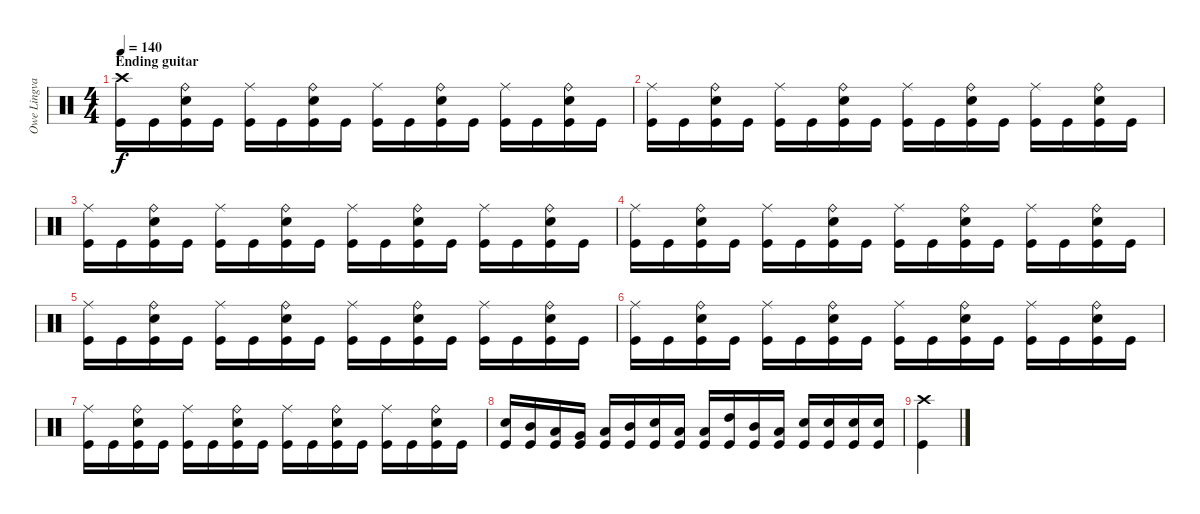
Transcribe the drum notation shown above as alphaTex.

\track ("Owe Lingvall" "Owe Lingva") {instrument percussion}
\staff {score}
\articulation defaults
\ts (4 4)
\section ("" "Ending guitar")
\tempo 140
\clef neutral
\ks c
("Kick (hit)" "Crash high (hit)").16{dy f} "Kick (hit)".16 ("Kick (hit)" "Ride (bell)" "Snare (hit) 2").16 "Kick (hit)".16 ("Kick (hit)" "Ride (middle)").16 "Kick (hit)".16 ("Kick (hit)" "Ride (bell)" "Snare (hit) 2").16 "Kick (hit)".16 ("Kick (hit)" "Ride (middle)").16 "Kick (hit)".16 ("Kick (hit)" "Ride (bell)" "Snare (hit) 2").16 "Kick (hit)".16 ("Kick (hit)" "Ride (middle)").16 "Kick (hit)".16 ("Kick (hit)" "Ride (bell)" "Snare (hit) 2").16 "Kick (hit)".16 |
("Kick (hit)" "Ride (middle)").16 "Kick (hit)".16 ("Kick (hit)" "Ride (bell)" "Snare (hit) 2").16 "Kick (hit)".16 ("Kick (hit)" "Ride (middle)").16 "Kick (hit)".16 ("Kick (hit)" "Ride (bell)" "Snare (hit) 2").16 "Kick (hit)".16 ("Kick (hit)" "Ride (middle)").16 "Kick (hit)".16 ("Kick (hit)" "Ride (bell)" "Snare (hit) 2").16 "Kick (hit)".16 ("Kick (hit)" "Ride (middle)").16 "Kick (hit)".16 ("Kick (hit)" "Ride (bell)" "Snare (hit) 2").16 "Kick (hit)".16 |
("Kick (hit)" "Ride (middle)").16 "Kick (hit)".16 ("Kick (hit)" "Ride (bell)" "Snare (hit) 2").16 "Kick (hit)".16 ("Kick (hit)" "Ride (middle)").16 "Kick (hit)".16 ("Kick (hit)" "Ride (bell)" "Snare (hit) 2").16 "Kick (hit)".16 ("Kick (hit)" "Ride (middle)").16 "Kick (hit)".16 ("Kick (hit)" "Ride (bell)" "Snare (hit) 2").16 "Kick (hit)".16 ("Kick (hit)" "Ride (middle)").16 "Kick (hit)".16 ("Kick (hit)" "Ride (bell)" "Snare (hit) 2").16 "Kick (hit)".16 |
("Kick (hit)" "Ride (middle)").16 "Kick (hit)".16 ("Kick (hit)" "Ride (bell)" "Snare (hit) 2").16 "Kick (hit)".16 ("Kick (hit)" "Ride (middle)").16 "Kick (hit)".16 ("Kick (hit)" "Ride (bell)" "Snare (hit) 2").16 "Kick (hit)".16 ("Kick (hit)" "Ride (middle)").16 "Kick (hit)".16 ("Kick (hit)" "Ride (bell)" "Snare (hit) 2").16 "Kick (hit)".16 ("Kick (hit)" "Ride (middle)").16 "Kick (hit)".16 ("Kick (hit)" "Ride (bell)" "Snare (hit) 2").16 "Kick (hit)".16 |
("Kick (hit)" "Ride (middle)").16 "Kick (hit)".16 ("Kick (hit)" "Ride (bell)" "Snare (hit) 2").16 "Kick (hit)".16 ("Kick (hit)" "Ride (middle)").16 "Kick (hit)".16 ("Kick (hit)" "Ride (bell)" "Snare (hit) 2").16 "Kick (hit)".16 ("Kick (hit)" "Ride (middle)").16 "Kick (hit)".16 ("Kick (hit)" "Ride (bell)" "Snare (hit) 2").16 "Kick (hit)".16 ("Kick (hit)" "Ride (middle)").16 "Kick (hit)".16 ("Kick (hit)" "Ride (bell)" "Snare (hit) 2").16 "Kick (hit)".16 |
("Kick (hit)" "Ride (middle)").16 "Kick (hit)".16 ("Kick (hit)" "Ride (bell)" "Snare (hit) 2").16 "Kick (hit)".16 ("Kick (hit)" "Ride (middle)").16 "Kick (hit)".16 ("Kick (hit)" "Ride (bell)" "Snare (hit) 2").16 "Kick (hit)".16 ("Kick (hit)" "Ride (middle)").16 "Kick (hit)".16 ("Kick (hit)" "Ride (bell)" "Snare (hit) 2").16 "Kick (hit)".16 ("Kick (hit)" "Ride (middle)").16 "Kick (hit)".16 ("Kick (hit)" "Ride (bell)" "Snare (hit) 2").16 "Kick (hit)".16 |
("Kick (hit)" "Ride (middle)").16 "Kick (hit)".16 ("Kick (hit)" "Ride (bell)" "Snare (hit) 2").16 "Kick (hit)".16 ("Kick (hit)" "Ride (middle)").16 "Kick (hit)".16 ("Kick (hit)" "Ride (bell)" "Snare (hit) 2").16 "Kick (hit)".16 ("Kick (hit)" "Ride (middle)").16 "Kick (hit)".16 ("Kick (hit)" "Ride (bell)" "Snare (hit) 2").16 "Kick (hit)".16 ("Kick (hit)" "Ride (middle)").16 "Kick (hit)".16 ("Kick (hit)" "Ride (bell)" "Snare (hit) 2").16 "Kick (hit)".16 |
("Kick (hit)" "Snare (hit) 2").16 ("Kick (hit)" "Mid Tom (hit)").16 ("Kick (hit)" "Low Tom (hit)").16 ("Kick (hit)" "Very Low Tom (hit)").16 ("Kick (hit)" "Low Tom (hit)").16 ("Kick (hit)" "Mid Tom (hit)").16 ("Kick (hit)" "Snare (hit) 2").16 ("Kick (hit)" "Low Tom (hit)").16 ("Kick (hit)" "Low Tom (hit)").16 ("Kick (hit)" "High Tom (hit)").16 ("Kick (hit)" "Mid Tom (hit)").16 ("Kick (hit)" "Low Tom (hit)").16 ("Kick (hit)" "Snare (hit) 2").16 ("Kick (hit)" "Snare (hit) 2").16 ("Kick (hit)" "Snare (hit) 2").16 ("Kick (hit)" "Snare (hit) 2").16 |
("Crash high (hit)" "Kick (hit)").4
